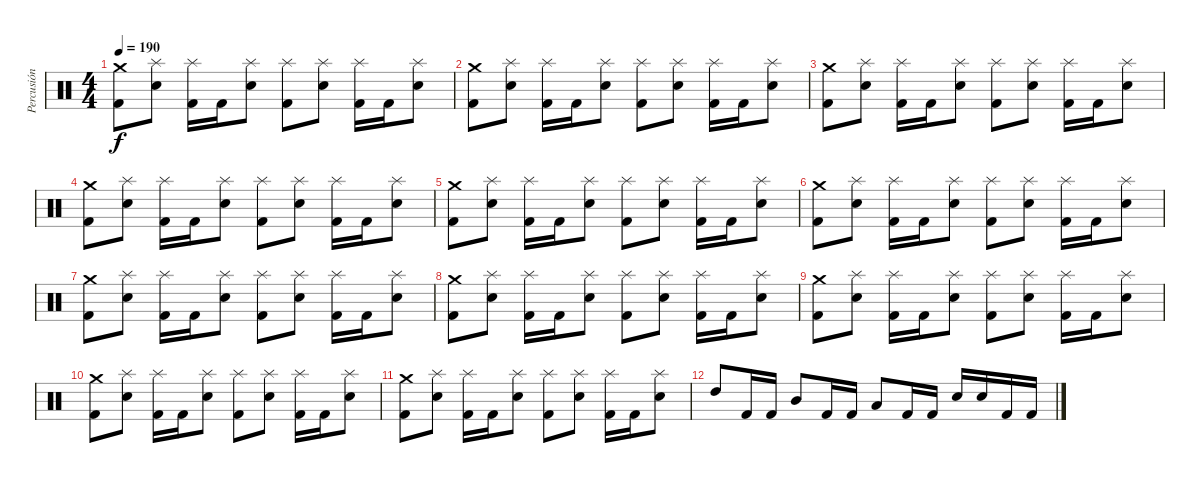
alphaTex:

\track ("Percusión" "Percusión") {instrument percussion}
\staff {score}
\articulation defaults
\ts (4 4)
\tempo 190
\clef neutral
\ks c
("Crash medium (hit)" "Kick (hit) 2").8{dy f} ("Splash (hit)" "Snare (hit) 2").8 ("Splash (hit)" "Kick (hit) 2").16 "Kick (hit) 2".16 ("Splash (hit)" "Snare (hit) 2").8 ("Splash (hit)" "Kick (hit) 2").8 ("Splash (hit)" "Snare (hit) 2").8 ("Splash (hit)" "Kick (hit) 2").16 "Kick (hit) 2".16 ("Splash (hit)" "Snare (hit) 2").8 |
("Crash medium (hit)" "Kick (hit) 2").8 ("Splash (hit)" "Snare (hit) 2").8 ("Splash (hit)" "Kick (hit) 2").16 "Kick (hit) 2".16 ("Splash (hit)" "Snare (hit) 2").8 ("Splash (hit)" "Kick (hit) 2").8 ("Splash (hit)" "Snare (hit) 2").8 ("Splash (hit)" "Kick (hit) 2").16 "Kick (hit) 2".16 ("Splash (hit)" "Snare (hit) 2").8 |
("Crash medium (hit)" "Kick (hit) 2").8 ("Splash (hit)" "Snare (hit) 2").8 ("Splash (hit)" "Kick (hit) 2").16 "Kick (hit) 2".16 ("Splash (hit)" "Snare (hit) 2").8 ("Splash (hit)" "Kick (hit) 2").8 ("Splash (hit)" "Snare (hit) 2").8 ("Splash (hit)" "Kick (hit) 2").16 "Kick (hit) 2".16 ("Splash (hit)" "Snare (hit) 2").8 |
("Crash medium (hit)" "Kick (hit) 2").8 ("Splash (hit)" "Snare (hit) 2").8 ("Splash (hit)" "Kick (hit) 2").16 "Kick (hit) 2".16 ("Splash (hit)" "Snare (hit) 2").8 ("Splash (hit)" "Kick (hit) 2").8 ("Splash (hit)" "Snare (hit) 2").8 ("Splash (hit)" "Kick (hit) 2").16 "Kick (hit) 2".16 ("Splash (hit)" "Snare (hit) 2").8 |
("Crash medium (hit)" "Kick (hit) 2").8 ("Splash (hit)" "Snare (hit) 2").8 ("Splash (hit)" "Kick (hit) 2").16 "Kick (hit) 2".16 ("Splash (hit)" "Snare (hit) 2").8 ("Splash (hit)" "Kick (hit) 2").8 ("Splash (hit)" "Snare (hit) 2").8 ("Splash (hit)" "Kick (hit) 2").16 "Kick (hit) 2".16 ("Splash (hit)" "Snare (hit) 2").8 |
("Crash medium (hit)" "Kick (hit) 2").8 ("Splash (hit)" "Snare (hit) 2").8 ("Splash (hit)" "Kick (hit) 2").16 "Kick (hit) 2".16 ("Splash (hit)" "Snare (hit) 2").8 ("Splash (hit)" "Kick (hit) 2").8 ("Splash (hit)" "Snare (hit) 2").8 ("Splash (hit)" "Kick (hit) 2").16 "Kick (hit) 2".16 ("Splash (hit)" "Snare (hit) 2").8 |
("Crash medium (hit)" "Kick (hit) 2").8 ("Splash (hit)" "Snare (hit) 2").8 ("Splash (hit)" "Kick (hit) 2").16 "Kick (hit) 2".16 ("Splash (hit)" "Snare (hit) 2").8 ("Splash (hit)" "Kick (hit) 2").8 ("Splash (hit)" "Snare (hit) 2").8 ("Splash (hit)" "Kick (hit) 2").16 "Kick (hit) 2".16 ("Splash (hit)" "Snare (hit) 2").8 |
("Crash medium (hit)" "Kick (hit) 2").8 ("Splash (hit)" "Snare (hit) 2").8 ("Splash (hit)" "Kick (hit) 2").16 "Kick (hit) 2".16 ("Splash (hit)" "Snare (hit) 2").8 ("Splash (hit)" "Kick (hit) 2").8 ("Splash (hit)" "Snare (hit) 2").8 ("Splash (hit)" "Kick (hit) 2").16 "Kick (hit) 2".16 ("Splash (hit)" "Snare (hit) 2").8 |
("Crash medium (hit)" "Kick (hit) 2").8 ("Splash (hit)" "Snare (hit) 2").8 ("Splash (hit)" "Kick (hit) 2").16 "Kick (hit) 2".16 ("Splash (hit)" "Snare (hit) 2").8 ("Splash (hit)" "Kick (hit) 2").8 ("Splash (hit)" "Snare (hit) 2").8 ("Splash (hit)" "Kick (hit) 2").16 "Kick (hit) 2".16 ("Splash (hit)" "Snare (hit) 2").8 |
("Crash medium (hit)" "Kick (hit) 2").8 ("Splash (hit)" "Snare (hit) 2").8 ("Splash (hit)" "Kick (hit) 2").16 "Kick (hit) 2".16 ("Splash (hit)" "Snare (hit) 2").8 ("Splash (hit)" "Kick (hit) 2").8 ("Splash (hit)" "Snare (hit) 2").8 ("Splash (hit)" "Kick (hit) 2").16 "Kick (hit) 2".16 ("Splash (hit)" "Snare (hit) 2").8 |
("Crash medium (hit)" "Kick (hit) 2").8 ("Splash (hit)" "Snare (hit) 2").8 ("Splash (hit)" "Kick (hit) 2").16 "Kick (hit) 2".16 ("Splash (hit)" "Snare (hit) 2").8 ("Splash (hit)" "Kick (hit) 2").8 ("Splash (hit)" "Snare (hit) 2").8 ("Splash (hit)" "Kick (hit) 2").16 "Kick (hit) 2".16 ("Splash (hit)" "Snare (hit) 2").8 |
"High Tom (hit)".8 "Kick (hit) 2".16 "Kick (hit) 2".16 "Mid Tom (hit)".8 "Kick (hit) 2".16 "Kick (hit) 2".16 "Low Tom (hit)".8 "Kick (hit) 2".16 "Kick (hit) 2".16 "Snare (hit) 2".16 "Snare (hit) 2".16 "Kick (hit) 2".16 "Kick (hit) 2".16
